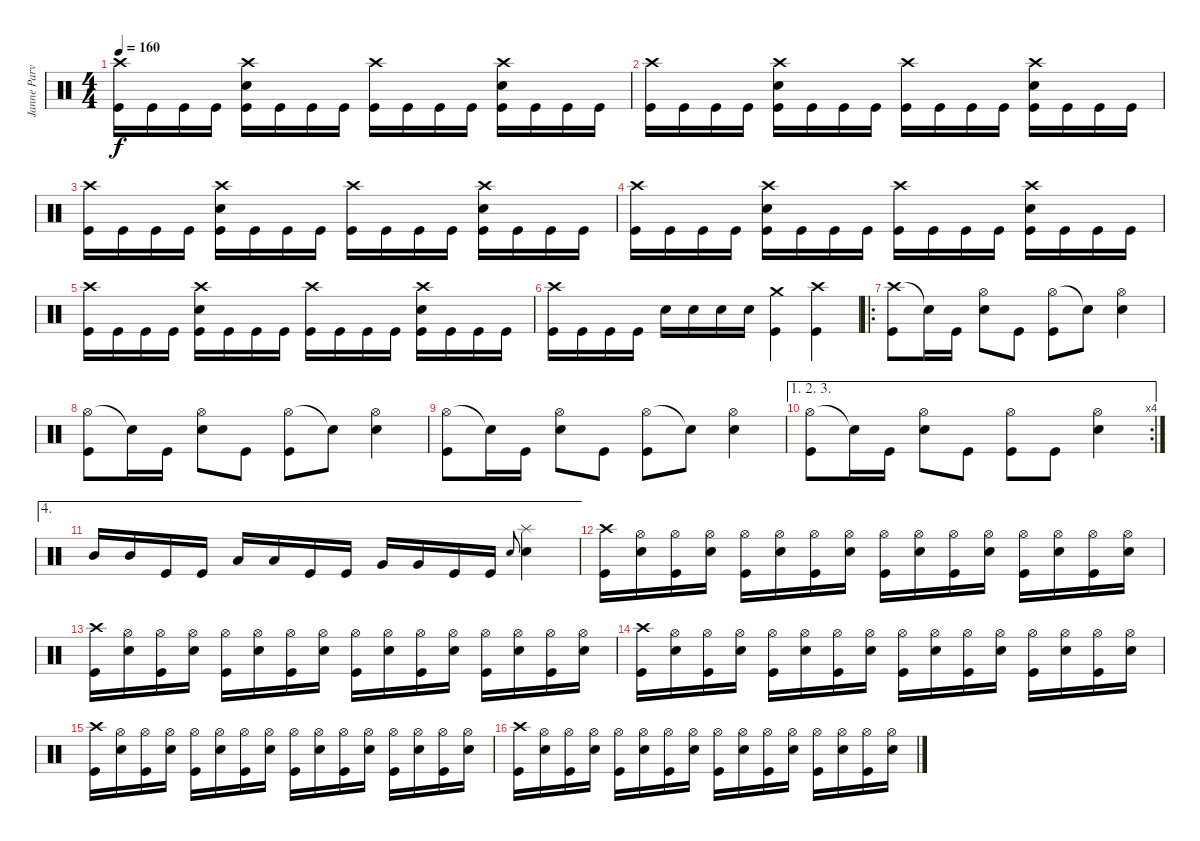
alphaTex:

\track ("Janne Parviainen" "Janne Parv") {instrument percussion}
\staff {score}
\articulation defaults
\ts (4 4)
\tempo 160
\clef neutral
\ks c
("Crash high (hit)" "Kick (hit)").16{dy f} "Kick (hit)".16 "Kick (hit)".16 "Kick (hit)".16 ("Crash high (hit)" "Electric Snare (hit)" "Kick (hit)").16 "Kick (hit)".16 "Kick (hit)".16 "Kick (hit)".16 ("Crash high (hit)" "Kick (hit)").16 "Kick (hit)".16 "Kick (hit)".16 "Kick (hit)".16 ("Crash high (hit)" "Electric Snare (hit)" "Kick (hit)").16 "Kick (hit)".16 "Kick (hit)".16 "Kick (hit)".16 |
("Crash high (hit)" "Kick (hit)").16 "Kick (hit)".16 "Kick (hit)".16 "Kick (hit)".16 ("Crash high (hit)" "Electric Snare (hit)" "Kick (hit)").16 "Kick (hit)".16 "Kick (hit)".16 "Kick (hit)".16 ("Crash high (hit)" "Kick (hit)").16 "Kick (hit)".16 "Kick (hit)".16 "Kick (hit)".16 ("Crash high (hit)" "Electric Snare (hit)" "Kick (hit)").16 "Kick (hit)".16 "Kick (hit)".16 "Kick (hit)".16 |
("Crash high (hit)" "Kick (hit)").16 "Kick (hit)".16 "Kick (hit)".16 "Kick (hit)".16 ("Crash high (hit)" "Electric Snare (hit)" "Kick (hit)").16 "Kick (hit)".16 "Kick (hit)".16 "Kick (hit)".16 ("Crash high (hit)" "Kick (hit)").16 "Kick (hit)".16 "Kick (hit)".16 "Kick (hit)".16 ("Crash high (hit)" "Electric Snare (hit)" "Kick (hit)").16 "Kick (hit)".16 "Kick (hit)".16 "Kick (hit)".16 |
("Crash high (hit)" "Kick (hit)").16 "Kick (hit)".16 "Kick (hit)".16 "Kick (hit)".16 ("Crash high (hit)" "Electric Snare (hit)" "Kick (hit)").16 "Kick (hit)".16 "Kick (hit)".16 "Kick (hit)".16 ("Crash high (hit)" "Kick (hit)").16 "Kick (hit)".16 "Kick (hit)".16 "Kick (hit)".16 ("Crash high (hit)" "Electric Snare (hit)" "Kick (hit)").16 "Kick (hit)".16 "Kick (hit)".16 "Kick (hit)".16 |
("Crash high (hit)" "Kick (hit)").16 "Kick (hit)".16 "Kick (hit)".16 "Kick (hit)".16 ("Crash high (hit)" "Electric Snare (hit)" "Kick (hit)").16 "Kick (hit)".16 "Kick (hit)".16 "Kick (hit)".16 ("Crash high (hit)" "Kick (hit)").16 "Kick (hit)".16 "Kick (hit)".16 "Kick (hit)".16 ("Crash high (hit)" "Electric Snare (hit)" "Kick (hit)").16 "Kick (hit)".16 "Kick (hit)".16 "Kick (hit)".16 |
("Crash high (hit)" "Kick (hit)").16 "Kick (hit)".16 "Kick (hit)".16 "Kick (hit)".16 "Electric Snare (hit)".16 "Electric Snare (hit)".16 "Electric Snare (hit)".16 "Electric Snare (hit)".16 ("Crash medium (hit)" "Kick (hit)").4 ("Crash high (hit)" "Kick (hit)").4 |
\ro
("Crash high (hit)" "Kick (hit)").8 "Snare (hit)"{t}.16 "Kick (hit)".16 ("Hi-Hat (open)" "Electric Snare (hit)").8 "Kick (hit)".8 ("Hi-Hat (open)" "Kick (hit)").8 "Snare (hit)"{t}.8 ("Hi-Hat (open)" "Electric Snare (hit)").4 |
("Hi-Hat (open)" "Kick (hit)").8 "Snare (hit)"{t}.16 "Kick (hit)".16 ("Hi-Hat (open)" "Electric Snare (hit)").8 "Kick (hit)".8 ("Hi-Hat (open)" "Kick (hit)").8 "Snare (hit)"{t}.8 ("Hi-Hat (open)" "Electric Snare (hit)").4 |
("Hi-Hat (open)" "Kick (hit)").8 "Snare (hit)"{t}.16 "Kick (hit)".16 ("Hi-Hat (open)" "Electric Snare (hit)").8 "Kick (hit)".8 ("Hi-Hat (open)" "Kick (hit)").8 "Snare (hit)"{t}.8 ("Hi-Hat (open)" "Electric Snare (hit)").4 |
\ae (1 2 3)
\rc 4
("Hi-Hat (open)" "Kick (hit)").8 "Snare (hit)"{t}.16 "Kick (hit)".16 ("Hi-Hat (open)" "Electric Snare (hit)").8 "Kick (hit)".8 ("Hi-Hat (open)" "Kick (hit)").8 "Kick (hit)".8 ("Hi-Hat (open)" "Electric Snare (hit)").4 |
\ae 4 "Mid Tom (hit)".16 "Mid Tom (hit)".16 "Kick (hit)".16 "Kick (hit)".16 "Low Tom (hit)".16 "Low Tom (hit)".16 "Kick (hit)".16 "Kick (hit)".16 "Very Low Tom (hit)".16 "Very Low Tom (hit)".16 "Kick (hit)".16 "Kick (hit)".16 "Electric Snare (hit)".8{gr onbeat}
("Splash (hit)" "Electric Snare (hit)").4 |
("Crash high (hit)" "Kick (hit)").16 ("Hi-Hat (open)" "Electric Snare (hit)").16 ("Hi-Hat (open)" "Kick (hit)").16 ("Hi-Hat (open)" "Electric Snare (hit)").16 ("Hi-Hat (open)" "Kick (hit)").16 ("Hi-Hat (open)" "Electric Snare (hit)").16 ("Hi-Hat (open)" "Kick (hit)").16 ("Hi-Hat (open)" "Electric Snare (hit)").16 ("Hi-Hat (open)" "Kick (hit)").16 ("Hi-Hat (open)" "Electric Snare (hit)").16 ("Hi-Hat (open)" "Kick (hit)").16 ("Hi-Hat (open)" "Electric Snare (hit)").16 ("Hi-Hat (open)" "Kick (hit)").16 ("Hi-Hat (open)" "Electric Snare (hit)").16 ("Hi-Hat (open)" "Kick (hit)").16 ("Hi-Hat (open)" "Electric Snare (hit)").16 |
("Crash high (hit)" "Kick (hit)").16 ("Hi-Hat (open)" "Electric Snare (hit)").16 ("Hi-Hat (open)" "Kick (hit)").16 ("Hi-Hat (open)" "Electric Snare (hit)").16 ("Hi-Hat (open)" "Kick (hit)").16 ("Hi-Hat (open)" "Electric Snare (hit)").16 ("Hi-Hat (open)" "Kick (hit)").16 ("Hi-Hat (open)" "Electric Snare (hit)").16 ("Hi-Hat (open)" "Kick (hit)").16 ("Hi-Hat (open)" "Electric Snare (hit)").16 ("Hi-Hat (open)" "Kick (hit)").16 ("Hi-Hat (open)" "Electric Snare (hit)").16 ("Hi-Hat (open)" "Kick (hit)").16 ("Hi-Hat (open)" "Electric Snare (hit)").16 ("Hi-Hat (open)" "Kick (hit)").16 ("Hi-Hat (open)" "Electric Snare (hit)").16 |
("Crash high (hit)" "Kick (hit)").16 ("Hi-Hat (open)" "Electric Snare (hit)").16 ("Hi-Hat (open)" "Kick (hit)").16 ("Hi-Hat (open)" "Electric Snare (hit)").16 ("Hi-Hat (open)" "Kick (hit)").16 ("Hi-Hat (open)" "Electric Snare (hit)").16 ("Hi-Hat (open)" "Kick (hit)").16 ("Hi-Hat (open)" "Electric Snare (hit)").16 ("Hi-Hat (open)" "Kick (hit)").16 ("Hi-Hat (open)" "Electric Snare (hit)").16 ("Hi-Hat (open)" "Kick (hit)").16 ("Hi-Hat (open)" "Electric Snare (hit)").16 ("Hi-Hat (open)" "Kick (hit)").16 ("Hi-Hat (open)" "Electric Snare (hit)").16 ("Hi-Hat (open)" "Kick (hit)").16 ("Hi-Hat (open)" "Electric Snare (hit)").16 |
("Crash high (hit)" "Kick (hit)").16 ("Hi-Hat (open)" "Electric Snare (hit)").16 ("Hi-Hat (open)" "Kick (hit)").16 ("Hi-Hat (open)" "Electric Snare (hit)").16 ("Hi-Hat (open)" "Kick (hit)").16 ("Hi-Hat (open)" "Electric Snare (hit)").16 ("Hi-Hat (open)" "Kick (hit)").16 ("Hi-Hat (open)" "Electric Snare (hit)").16 ("Hi-Hat (open)" "Kick (hit)").16 ("Hi-Hat (open)" "Electric Snare (hit)").16 ("Hi-Hat (open)" "Kick (hit)").16 ("Hi-Hat (open)" "Electric Snare (hit)").16 ("Hi-Hat (open)" "Kick (hit)").16 ("Hi-Hat (open)" "Electric Snare (hit)").16 ("Hi-Hat (open)" "Kick (hit)").16 ("Hi-Hat (open)" "Electric Snare (hit)").16 |
("Crash high (hit)" "Kick (hit)").16 ("Hi-Hat (open)" "Electric Snare (hit)").16 ("Hi-Hat (open)" "Kick (hit)").16 ("Hi-Hat (open)" "Electric Snare (hit)").16 ("Hi-Hat (open)" "Kick (hit)").16 ("Hi-Hat (open)" "Electric Snare (hit)").16 ("Hi-Hat (open)" "Kick (hit)").16 ("Hi-Hat (open)" "Electric Snare (hit)").16 ("Hi-Hat (open)" "Kick (hit)").16 ("Hi-Hat (open)" "Electric Snare (hit)").16 ("Hi-Hat (open)" "Kick (hit)").16 ("Hi-Hat (open)" "Electric Snare (hit)").16 ("Hi-Hat (open)" "Kick (hit)").16 ("Hi-Hat (open)" "Electric Snare (hit)").16 ("Hi-Hat (open)" "Kick (hit)").16 ("Hi-Hat (open)" "Electric Snare (hit)").16
